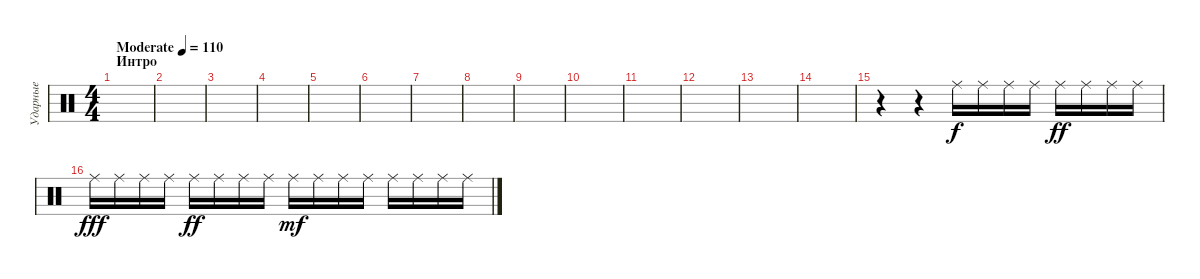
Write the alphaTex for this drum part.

\track ("Ударные" "Ударные") {mute instrument percussion}
\staff {score}
\articulation defaults
\ts (4 4)
\section ("" "Интро")
\tempo (110 "Moderate")
\clef neutral
\ks c
|
|
|
|
|
|
|
|
|
|
|
|
|
|
r.4 r.4 "Ride (middle)".16 "Ride (middle)".16 "Ride (middle)".16 "Ride (middle)".16 "Ride (middle)".16{dy ff} "Ride (middle)".16 "Ride (middle)".16 "Ride (middle)".16 |
"Ride (middle)".16{dy fff} "Ride (middle)".16 "Ride (middle)".16 "Ride (middle)".16 "Ride (middle)".16{dy ff} "Ride (middle)".16 "Ride (middle)".16 "Ride (middle)".16 "Ride (middle)".16{dy mf} "Ride (middle)".16 "Ride (middle)".16 "Ride (middle)".16 "Ride (middle)".16 "Ride (middle)".16 "Ride (middle)".16 "Ride (middle)".16
